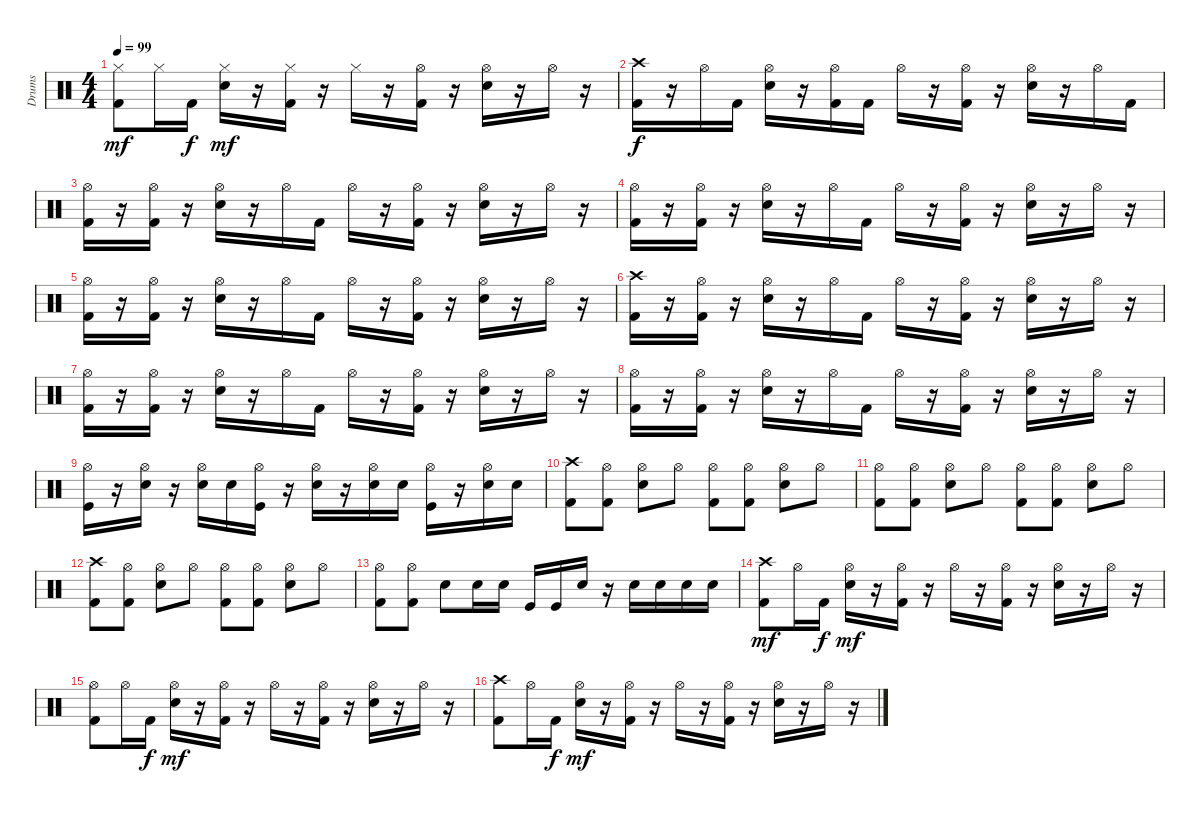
\track ("Drums" "Drums") {instrument percussion}
\staff {score}
\articulation defaults
\ts (4 4)
\tempo 99
\clef neutral
\ks c
("Hi-Hat (closed)" "Kick (hit) 2").8{dy mf} "Hi-Hat (closed)".16 "Kick (hit) 2".16{dy f} ("Hi-Hat (closed)" "Snare (hit) 2").16{dy mf} r.16 ("Hi-Hat (closed)" "Kick (hit) 2").16 r.16 "Hi-Hat (closed)".16 r.16 ("Hi-Hat (open)" "Kick (hit) 2").16 r.16 ("Hi-Hat (open)" "Snare (hit) 2").16 r.16 "Hi-Hat (open)".16 r.16 |
("Crash high (hit)" "Kick (hit) 2").16{dy f} r.16 "Hi-Hat (open)".16 "Kick (hit) 2".16 ("Hi-Hat (open)" "Snare (hit) 2").16 r.16 ("Hi-Hat (open)" "Kick (hit) 2").16 "Kick (hit) 2".16 "Hi-Hat (open)".16 r.16 ("Hi-Hat (open)" "Kick (hit) 2").16 r.16 ("Hi-Hat (open)" "Snare (hit) 2").16 r.16 "Hi-Hat (open)".16 "Kick (hit) 2".16 |
("Hi-Hat (open)" "Kick (hit) 2").16 r.16 ("Hi-Hat (open)" "Kick (hit) 2").16 r.16 ("Hi-Hat (open)" "Snare (hit) 2").16 r.16 "Hi-Hat (open)".16 "Kick (hit) 2".16 "Hi-Hat (open)".16 r.16 ("Hi-Hat (open)" "Kick (hit) 2").16 r.16 ("Hi-Hat (open)" "Snare (hit) 2").16 r.16 "Hi-Hat (open)".16 r.16 |
("Hi-Hat (open)" "Kick (hit) 2").16 r.16 ("Hi-Hat (open)" "Kick (hit) 2").16 r.16 ("Hi-Hat (open)" "Snare (hit) 2").16 r.16 "Hi-Hat (open)".16 "Kick (hit) 2".16 "Hi-Hat (open)".16 r.16 ("Hi-Hat (open)" "Kick (hit) 2").16 r.16 ("Hi-Hat (open)" "Snare (hit) 2").16 r.16 "Hi-Hat (open)".16 r.16 |
("Hi-Hat (open)" "Kick (hit) 2").16 r.16 ("Hi-Hat (open)" "Kick (hit) 2").16 r.16 ("Hi-Hat (open)" "Snare (hit) 2").16 r.16 "Hi-Hat (open)".16 "Kick (hit) 2".16 "Hi-Hat (open)".16 r.16 ("Hi-Hat (open)" "Kick (hit) 2").16 r.16 ("Hi-Hat (open)" "Snare (hit) 2").16 r.16 "Hi-Hat (open)".16 r.16 |
("Crash high (hit)" "Kick (hit) 2").16 r.16 ("Hi-Hat (open)" "Kick (hit) 2").16 r.16 ("Hi-Hat (open)" "Snare (hit) 2").16 r.16 "Hi-Hat (open)".16 "Kick (hit) 2".16 "Hi-Hat (open)".16 r.16 ("Hi-Hat (open)" "Kick (hit) 2").16 r.16 ("Hi-Hat (open)" "Snare (hit) 2").16 r.16 "Hi-Hat (open)".16 r.16 |
("Hi-Hat (open)" "Kick (hit) 2").16 r.16 ("Hi-Hat (open)" "Kick (hit) 2").16 r.16 ("Hi-Hat (open)" "Snare (hit) 2").16 r.16 "Hi-Hat (open)".16 "Kick (hit) 2".16 "Hi-Hat (open)".16 r.16 ("Hi-Hat (open)" "Kick (hit) 2").16 r.16 ("Hi-Hat (open)" "Snare (hit) 2").16 r.16 "Hi-Hat (open)".16 r.16 |
("Hi-Hat (open)" "Kick (hit) 2").16 r.16 ("Hi-Hat (open)" "Kick (hit) 2").16 r.16 ("Hi-Hat (open)" "Snare (hit) 2").16 r.16 "Hi-Hat (open)".16 "Kick (hit) 2".16 "Hi-Hat (open)".16 r.16 ("Hi-Hat (open)" "Kick (hit) 2").16 r.16 ("Hi-Hat (open)" "Snare (hit) 2").16 r.16 "Hi-Hat (open)".16 r.16 |
("Hi-Hat (open)" "Kick (hit)").16 r.16 ("Hi-Hat (open)" "Snare (hit) 2").16 r.16 ("Hi-Hat (open)" "Snare (hit) 2").16 "Snare (hit) 2".16 ("Hi-Hat (open)" "Kick (hit)").16 r.16 ("Hi-Hat (open)" "Snare (hit) 2").16 r.16 ("Hi-Hat (open)" "Snare (hit) 2").16 "Snare (hit) 2".16 ("Hi-Hat (open)" "Kick (hit)").16 r.16 ("Hi-Hat (open)" "Snare (hit) 2").16 "Snare (hit) 2".16 |
("Crash high (hit)" "Kick (hit) 2").8 ("Hi-Hat (open)" "Kick (hit) 2").8 ("Hi-Hat (open)" "Snare (hit) 2").8 "Hi-Hat (open)".8 ("Hi-Hat (open)" "Kick (hit) 2").8 ("Hi-Hat (open)" "Kick (hit) 2").8 ("Hi-Hat (open)" "Snare (hit) 2").8 "Hi-Hat (open)".8 |
("Hi-Hat (open)" "Kick (hit) 2").8 ("Hi-Hat (open)" "Kick (hit) 2").8 ("Hi-Hat (open)" "Snare (hit) 2").8 "Hi-Hat (open)".8 ("Hi-Hat (open)" "Kick (hit) 2").8 ("Hi-Hat (open)" "Kick (hit) 2").8 ("Hi-Hat (open)" "Snare (hit) 2").8 "Hi-Hat (open)".8 |
("Crash high (hit)" "Kick (hit) 2").8 ("Hi-Hat (open)" "Kick (hit) 2").8 ("Hi-Hat (open)" "Snare (hit) 2").8 "Hi-Hat (open)".8 ("Hi-Hat (open)" "Kick (hit) 2").8 ("Hi-Hat (open)" "Kick (hit) 2").8 ("Hi-Hat (open)" "Snare (hit) 2").8 "Hi-Hat (open)".8 |
("Hi-Hat (open)" "Kick (hit) 2").8 ("Hi-Hat (open)" "Kick (hit) 2").8 "Snare (hit) 2".8 "Snare (hit) 2".16 "Snare (hit) 2".16 "Kick (hit)".16 "Kick (hit)".16 "Snare (hit) 2".16 r.16 "Snare (hit) 2".16 "Snare (hit) 2".16 "Snare (hit) 2".16 "Snare (hit) 2".16 |
("Crash high (hit)" "Kick (hit) 2").8{dy mf} "Hi-Hat (open)".16 "Kick (hit) 2".16{dy f} ("Hi-Hat (open)" "Snare (hit) 2").16{dy mf} r.16 ("Hi-Hat (open)" "Kick (hit) 2").16 r.16 "Hi-Hat (open)".16 r.16 ("Hi-Hat (open)" "Kick (hit) 2").16 r.16 ("Hi-Hat (open)" "Snare (hit) 2").16 r.16 "Hi-Hat (open)".16 r.16 |
("Hi-Hat (open)" "Kick (hit) 2").8 "Hi-Hat (open)".16 "Kick (hit) 2".16{dy f} ("Hi-Hat (open)" "Snare (hit) 2").16{dy mf} r.16 ("Hi-Hat (open)" "Kick (hit) 2").16 r.16 "Hi-Hat (open)".16 r.16 ("Hi-Hat (open)" "Kick (hit) 2").16 r.16 ("Hi-Hat (open)" "Snare (hit) 2").16 r.16 "Hi-Hat (open)".16 r.16 |
("Crash high (hit)" "Kick (hit) 2").8 "Hi-Hat (open)".16 "Kick (hit) 2".16{dy f} ("Hi-Hat (open)" "Snare (hit) 2").16{dy mf} r.16 ("Hi-Hat (open)" "Kick (hit) 2").16 r.16 "Hi-Hat (open)".16 r.16 ("Hi-Hat (open)" "Kick (hit) 2").16 r.16 ("Hi-Hat (open)" "Snare (hit) 2").16 r.16 "Hi-Hat (open)".16 r.16
